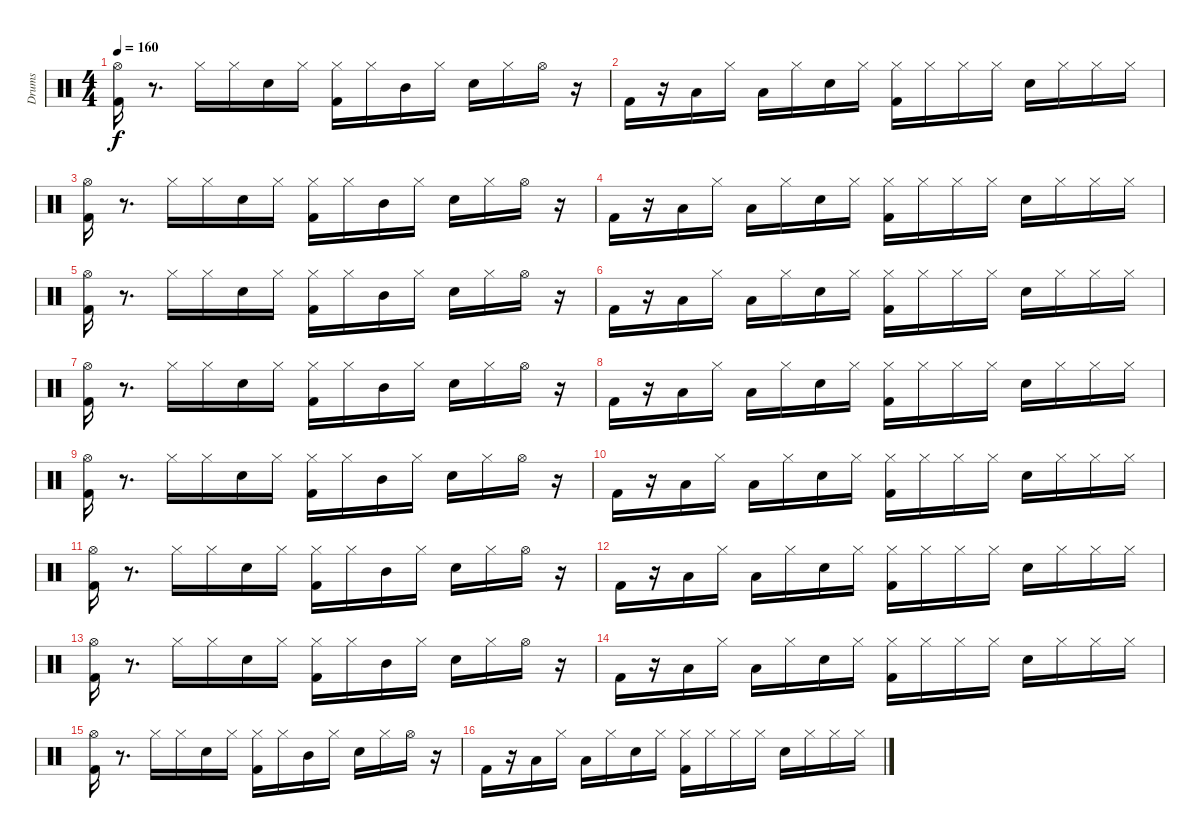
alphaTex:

\track ("Drums" "Drums") {instrument percussion}
\staff {score}
\articulation defaults
\ts (4 4)
\tempo 160
\clef neutral
\ks c
("Hi-Hat (open)" "Kick (hit) 2").16{dy f} r.8{d} "Hi-Hat (closed)".16 "Hi-Hat (closed)".16 "Electric Snare (hit)".16 "Hi-Hat (closed)".16 ("Hi-Hat (closed)" "Kick (hit) 2").16 "Hi-Hat (closed)".16 "Mid Tom (hit)".16 "Hi-Hat (closed)".16 "Electric Snare (hit)".16 "Hi-Hat (closed)".16 "Hi-Hat (open)".16 r.16 |
"Kick (hit) 2".16 r.16 "Low Tom (hit)".16 "Hi-Hat (closed)".16 "Low Tom (hit)".16 "Hi-Hat (closed)".16 "Electric Snare (hit)".16 "Hi-Hat (closed)".16 ("Hi-Hat (closed)" "Kick (hit) 2").16 "Hi-Hat (closed)".16 "Hi-Hat (closed)".16 "Hi-Hat (closed)".16 "Electric Snare (hit)".16 "Hi-Hat (closed)".16 "Hi-Hat (closed)".16 "Hi-Hat (closed)".16 |
("Hi-Hat (open)" "Kick (hit) 2").16 r.8{d} "Hi-Hat (closed)".16 "Hi-Hat (closed)".16 "Electric Snare (hit)".16 "Hi-Hat (closed)".16 ("Hi-Hat (closed)" "Kick (hit) 2").16 "Hi-Hat (closed)".16 "Mid Tom (hit)".16 "Hi-Hat (closed)".16 "Electric Snare (hit)".16 "Hi-Hat (closed)".16 "Hi-Hat (open)".16 r.16 |
"Kick (hit) 2".16 r.16 "Low Tom (hit)".16 "Hi-Hat (closed)".16 "Low Tom (hit)".16 "Hi-Hat (closed)".16 "Electric Snare (hit)".16 "Hi-Hat (closed)".16 ("Hi-Hat (closed)" "Kick (hit) 2").16 "Hi-Hat (closed)".16 "Hi-Hat (closed)".16 "Hi-Hat (closed)".16 "Electric Snare (hit)".16 "Hi-Hat (closed)".16 "Hi-Hat (closed)".16 "Hi-Hat (closed)".16 |
("Hi-Hat (open)" "Kick (hit) 2").16 r.8{d} "Hi-Hat (closed)".16 "Hi-Hat (closed)".16 "Electric Snare (hit)".16 "Hi-Hat (closed)".16 ("Hi-Hat (closed)" "Kick (hit) 2").16 "Hi-Hat (closed)".16 "Mid Tom (hit)".16 "Hi-Hat (closed)".16 "Electric Snare (hit)".16 "Hi-Hat (closed)".16 "Hi-Hat (open)".16 r.16 |
"Kick (hit) 2".16 r.16 "Low Tom (hit)".16 "Hi-Hat (closed)".16 "Low Tom (hit)".16 "Hi-Hat (closed)".16 "Electric Snare (hit)".16 "Hi-Hat (closed)".16 ("Hi-Hat (closed)" "Kick (hit) 2").16 "Hi-Hat (closed)".16 "Hi-Hat (closed)".16 "Hi-Hat (closed)".16 "Electric Snare (hit)".16 "Hi-Hat (closed)".16 "Hi-Hat (closed)".16 "Hi-Hat (closed)".16 |
("Hi-Hat (open)" "Kick (hit) 2").16 r.8{d} "Hi-Hat (closed)".16 "Hi-Hat (closed)".16 "Electric Snare (hit)".16 "Hi-Hat (closed)".16 ("Hi-Hat (closed)" "Kick (hit) 2").16 "Hi-Hat (closed)".16 "Mid Tom (hit)".16 "Hi-Hat (closed)".16 "Electric Snare (hit)".16 "Hi-Hat (closed)".16 "Hi-Hat (open)".16 r.16 |
"Kick (hit) 2".16 r.16 "Low Tom (hit)".16 "Hi-Hat (closed)".16 "Low Tom (hit)".16 "Hi-Hat (closed)".16 "Electric Snare (hit)".16 "Hi-Hat (closed)".16 ("Hi-Hat (closed)" "Kick (hit) 2").16 "Hi-Hat (closed)".16 "Hi-Hat (closed)".16 "Hi-Hat (closed)".16 "Electric Snare (hit)".16 "Hi-Hat (closed)".16 "Hi-Hat (closed)".16 "Hi-Hat (closed)".16 |
("Hi-Hat (open)" "Kick (hit) 2").16 r.8{d} "Hi-Hat (closed)".16 "Hi-Hat (closed)".16 "Electric Snare (hit)".16 "Hi-Hat (closed)".16 ("Hi-Hat (closed)" "Kick (hit) 2").16 "Hi-Hat (closed)".16 "Mid Tom (hit)".16 "Hi-Hat (closed)".16 "Electric Snare (hit)".16 "Hi-Hat (closed)".16 "Hi-Hat (open)".16 r.16 |
"Kick (hit) 2".16 r.16 "Low Tom (hit)".16 "Hi-Hat (closed)".16 "Low Tom (hit)".16 "Hi-Hat (closed)".16 "Electric Snare (hit)".16 "Hi-Hat (closed)".16 ("Hi-Hat (closed)" "Kick (hit) 2").16 "Hi-Hat (closed)".16 "Hi-Hat (closed)".16 "Hi-Hat (closed)".16 "Electric Snare (hit)".16 "Hi-Hat (closed)".16 "Hi-Hat (closed)".16 "Hi-Hat (closed)".16 |
("Hi-Hat (open)" "Kick (hit) 2").16 r.8{d} "Hi-Hat (closed)".16 "Hi-Hat (closed)".16 "Electric Snare (hit)".16 "Hi-Hat (closed)".16 ("Hi-Hat (closed)" "Kick (hit) 2").16 "Hi-Hat (closed)".16 "Mid Tom (hit)".16 "Hi-Hat (closed)".16 "Electric Snare (hit)".16 "Hi-Hat (closed)".16 "Hi-Hat (open)".16 r.16 |
"Kick (hit) 2".16 r.16 "Low Tom (hit)".16 "Hi-Hat (closed)".16 "Low Tom (hit)".16 "Hi-Hat (closed)".16 "Electric Snare (hit)".16 "Hi-Hat (closed)".16 ("Hi-Hat (closed)" "Kick (hit) 2").16 "Hi-Hat (closed)".16 "Hi-Hat (closed)".16 "Hi-Hat (closed)".16 "Electric Snare (hit)".16 "Hi-Hat (closed)".16 "Hi-Hat (closed)".16 "Hi-Hat (closed)".16 |
("Hi-Hat (open)" "Kick (hit) 2").16 r.8{d} "Hi-Hat (closed)".16 "Hi-Hat (closed)".16 "Electric Snare (hit)".16 "Hi-Hat (closed)".16 ("Hi-Hat (closed)" "Kick (hit) 2").16 "Hi-Hat (closed)".16 "Mid Tom (hit)".16 "Hi-Hat (closed)".16 "Electric Snare (hit)".16 "Hi-Hat (closed)".16 "Hi-Hat (open)".16 r.16 |
"Kick (hit) 2".16 r.16 "Low Tom (hit)".16 "Hi-Hat (closed)".16 "Low Tom (hit)".16 "Hi-Hat (closed)".16 "Electric Snare (hit)".16 "Hi-Hat (closed)".16 ("Hi-Hat (closed)" "Kick (hit) 2").16 "Hi-Hat (closed)".16 "Hi-Hat (closed)".16 "Hi-Hat (closed)".16 "Electric Snare (hit)".16 "Hi-Hat (closed)".16 "Hi-Hat (closed)".16 "Hi-Hat (closed)".16 |
("Hi-Hat (open)" "Kick (hit) 2").16 r.8{d} "Hi-Hat (closed)".16 "Hi-Hat (closed)".16 "Electric Snare (hit)".16 "Hi-Hat (closed)".16 ("Hi-Hat (closed)" "Kick (hit) 2").16 "Hi-Hat (closed)".16 "Mid Tom (hit)".16 "Hi-Hat (closed)".16 "Electric Snare (hit)".16 "Hi-Hat (closed)".16 "Hi-Hat (open)".16 r.16 |
"Kick (hit) 2".16 r.16 "Low Tom (hit)".16 "Hi-Hat (closed)".16 "Low Tom (hit)".16 "Hi-Hat (closed)".16 "Electric Snare (hit)".16 "Hi-Hat (closed)".16 ("Hi-Hat (closed)" "Kick (hit) 2").16 "Hi-Hat (closed)".16 "Hi-Hat (closed)".16 "Hi-Hat (closed)".16 "Electric Snare (hit)".16 "Hi-Hat (closed)".16 "Hi-Hat (closed)".16 "Hi-Hat (closed)".16
